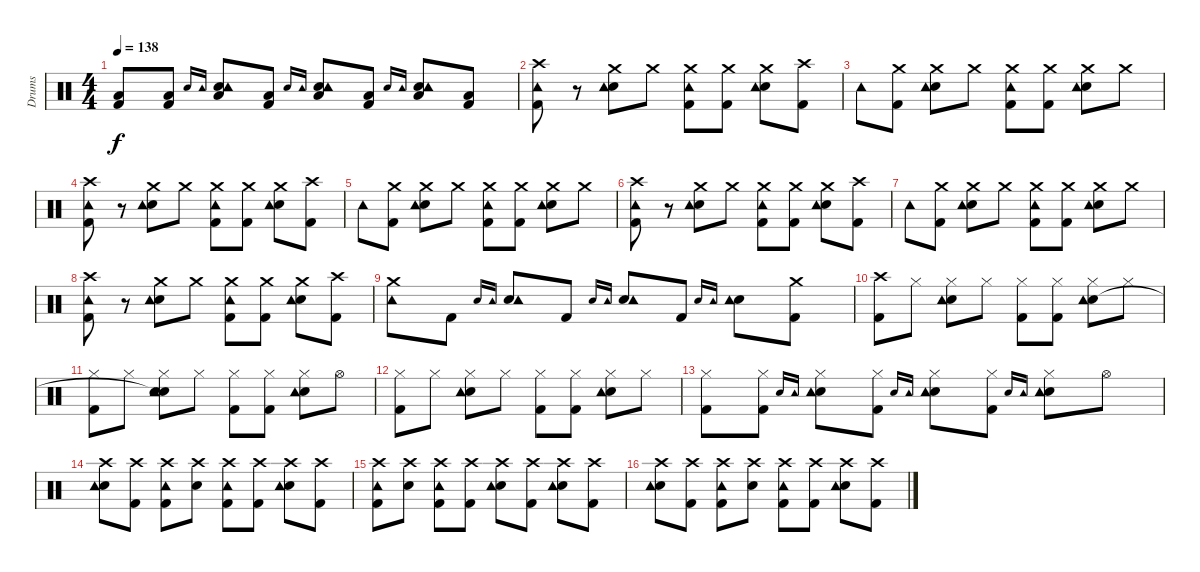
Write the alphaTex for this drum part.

\track ("Drums" "Drums") {instrument percussion}
\staff {score}
\articulation defaults
\ts (4 4)
\tempo 138
\clef neutral
\ks c
("Low Floor Tom (hit)" "Kick (hit) 2").8{dy f} ("Low Floor Tom (hit)" "Kick (hit) 2").8 "Electric Snare (hit)".16{gr onbeat} "Tambourine (hit)".16{gr onbeat} ("Low Floor Tom (hit)" "Electric Snare (hit)" "Tambourine (hit)").8 ("Low Floor Tom (hit)" "Kick (hit) 2").8 "Electric Snare (hit)".16{gr onbeat} "Tambourine (hit)".16{gr onbeat} ("Low Floor Tom (hit)" "Electric Snare (hit)" "Tambourine (hit)").8 ("Low Floor Tom (hit)" "Kick (hit) 2").8 "Electric Snare (hit)".16{gr onbeat} "Tambourine (hit)".16{gr onbeat} ("Low Floor Tom (hit)" "Electric Snare (hit)" "Tambourine (hit)").8 ("Low Floor Tom (hit)" "Kick (hit) 2").8 |
("Crash high (hit)" "Kick (hit) 2" "Tambourine (hit)").8 r.8 ("Crash medium (hit)" "Electric Snare (hit)" "Tambourine (hit)").8 "Crash medium (hit)".8 ("Crash medium (hit)" "Kick (hit) 2" "Tambourine (hit)").8 ("Crash medium (hit)" "Kick (hit) 2").8 ("Crash medium (hit)" "Electric Snare (hit)" "Tambourine (hit)").8 ("Crash high (hit)" "Kick (hit) 2").8 |
"Tambourine (hit)".8 ("Crash medium (hit)" "Kick (hit) 2").8 ("Crash medium (hit)" "Electric Snare (hit)" "Tambourine (hit)").8 "Crash medium (hit)".8 ("Crash medium (hit)" "Kick (hit) 2" "Tambourine (hit)").8 ("Crash medium (hit)" "Kick (hit) 2").8 ("Crash medium (hit)" "Electric Snare (hit)" "Tambourine (hit)").8 "Crash medium (hit)".8 |
("Crash high (hit)" "Kick (hit) 2" "Tambourine (hit)").8 r.8 ("Crash medium (hit)" "Electric Snare (hit)" "Tambourine (hit)").8 "Crash medium (hit)".8 ("Crash medium (hit)" "Kick (hit) 2" "Tambourine (hit)").8 ("Crash medium (hit)" "Kick (hit) 2").8 ("Crash medium (hit)" "Electric Snare (hit)" "Tambourine (hit)").8 ("Crash high (hit)" "Kick (hit) 2").8 |
"Tambourine (hit)".8 ("Crash medium (hit)" "Kick (hit) 2").8 ("Crash medium (hit)" "Electric Snare (hit)" "Tambourine (hit)").8 "Crash medium (hit)".8 ("Crash medium (hit)" "Kick (hit) 2" "Tambourine (hit)").8 ("Crash medium (hit)" "Kick (hit) 2").8 ("Crash medium (hit)" "Electric Snare (hit)" "Tambourine (hit)").8 "Crash medium (hit)".8 |
("Crash high (hit)" "Kick (hit) 2" "Tambourine (hit)").8 r.8 ("Crash medium (hit)" "Electric Snare (hit)" "Tambourine (hit)").8 "Crash medium (hit)".8 ("Crash medium (hit)" "Kick (hit) 2" "Tambourine (hit)").8 ("Crash medium (hit)" "Kick (hit) 2").8 ("Crash medium (hit)" "Electric Snare (hit)" "Tambourine (hit)").8 ("Crash high (hit)" "Kick (hit) 2").8 |
"Tambourine (hit)".8 ("Crash medium (hit)" "Kick (hit) 2").8 ("Crash medium (hit)" "Electric Snare (hit)" "Tambourine (hit)").8 "Crash medium (hit)".8 ("Crash medium (hit)" "Kick (hit) 2" "Tambourine (hit)").8 ("Crash medium (hit)" "Kick (hit) 2").8 ("Crash medium (hit)" "Electric Snare (hit)" "Tambourine (hit)").8 "Crash medium (hit)".8 |
("Crash high (hit)" "Kick (hit) 2" "Tambourine (hit)").8 r.8 ("Crash medium (hit)" "Electric Snare (hit)" "Tambourine (hit)").8 "Crash medium (hit)".8 ("Crash medium (hit)" "Kick (hit) 2" "Tambourine (hit)").8 ("Crash medium (hit)" "Kick (hit) 2").8 ("Crash medium (hit)" "Electric Snare (hit)" "Tambourine (hit)").8 ("Crash high (hit)" "Kick (hit) 2").8 |
("Crash medium (hit)" "Tambourine (hit)").8 "Kick (hit) 2".8 "Electric Snare (hit)".16{gr onbeat} "Tambourine (hit)".16{gr onbeat} ("Electric Snare (hit)" "Tambourine (hit)").8 "Kick (hit) 2".8 "Electric Snare (hit)".16{gr onbeat} "Tambourine (hit)".16{gr onbeat} ("Electric Snare (hit)" "Tambourine (hit)").8 "Kick (hit) 2".8 "Electric Snare (hit)".16{gr onbeat} "Tambourine (hit)".16{gr onbeat} ("Electric Snare (hit)" "Tambourine (hit)").8 ("Crash medium (hit)" "Kick (hit) 2").8 |
("Crash high (hit)" "Kick (hit) 2").8 "Hi-Hat (closed)".8 ("Hi-Hat (closed)" "Electric Snare (hit)" "Tambourine (hit)").8 "Hi-Hat (closed)".8 ("Hi-Hat (closed)" "Kick (hit) 2").8 ("Hi-Hat (closed)" "Kick (hit) 2").8 ("Hi-Hat (closed)" "Electric Snare (hit)" "Tambourine (hit)").8 "Hi-Hat (closed)".8 |
("Hi-Hat (closed)" "Kick (hit) 2").8 "Hi-Hat (closed)".8 ("Hi-Hat (closed)" "Electric Snare (hit)" "Snare (hit)"{t} "Tambourine (hit)").8 "Hi-Hat (closed)".8 ("Hi-Hat (closed)" "Kick (hit) 2").8 ("Hi-Hat (closed)" "Kick (hit) 2").8 ("Hi-Hat (closed)" "Electric Snare (hit)" "Tambourine (hit)").8 "Hi-Hat (open)".8 |
("Hi-Hat (closed)" "Kick (hit) 2").8 "Hi-Hat (closed)".8 ("Hi-Hat (closed)" "Electric Snare (hit)" "Tambourine (hit)").8 "Hi-Hat (closed)".8 ("Hi-Hat (closed)" "Kick (hit) 2").8 ("Hi-Hat (closed)" "Kick (hit) 2").8 ("Hi-Hat (closed)" "Electric Snare (hit)" "Tambourine (hit)").8 "Hi-Hat (closed)".8 |
("Hi-Hat (closed)" "Kick (hit) 2").8 ("Hi-Hat (closed)" "Kick (hit) 2").8 "Electric Snare (hit)".16{gr onbeat} "Tambourine (hit)".16{gr onbeat} ("Hi-Hat (closed)" "Electric Snare (hit)" "Tambourine (hit)").8 ("Hi-Hat (closed)" "Kick (hit) 2").8 "Electric Snare (hit)".16{gr onbeat} "Tambourine (hit)".16{gr onbeat} ("Hi-Hat (closed)" "Electric Snare (hit)" "Tambourine (hit)").8 ("Hi-Hat (closed)" "Kick (hit) 2").8 "Electric Snare (hit)".16{gr onbeat} "Tambourine (hit)".16{gr onbeat} ("Hi-Hat (closed)" "Electric Snare (hit)" "Tambourine (hit)").8 "Hi-Hat (open)".8 |
("Crash high (hit)" "Electric Snare (hit)" "Tambourine (hit)").8 ("Crash high (hit)" "Kick (hit) 2").8 ("Crash high (hit)" "Kick (hit) 2" "Tambourine (hit)").8 ("Crash high (hit)" "Electric Snare (hit)").8 ("Crash high (hit)" "Kick (hit) 2" "Tambourine (hit)").8 ("Crash high (hit)" "Kick (hit) 2").8 ("Crash high (hit)" "Electric Snare (hit)" "Tambourine (hit)").8 ("Crash high (hit)" "Kick (hit) 2").8 |
("Crash high (hit)" "Kick (hit) 2" "Tambourine (hit)").8 ("Crash high (hit)" "Electric Snare (hit)").8 ("Crash high (hit)" "Kick (hit) 2" "Tambourine (hit)").8 ("Crash high (hit)" "Kick (hit) 2").8 ("Crash high (hit)" "Electric Snare (hit)" "Tambourine (hit)").8 ("Crash high (hit)" "Kick (hit) 2").8 ("Crash high (hit)" "Electric Snare (hit)" "Tambourine (hit)").8 ("Crash high (hit)" "Kick (hit) 2").8 |
("Crash high (hit)" "Electric Snare (hit)" "Tambourine (hit)").8 ("Crash high (hit)" "Kick (hit) 2").8 ("Crash high (hit)" "Kick (hit) 2" "Tambourine (hit)").8 ("Crash high (hit)" "Electric Snare (hit)").8 ("Crash high (hit)" "Kick (hit) 2" "Tambourine (hit)").8 ("Crash high (hit)" "Kick (hit) 2").8 ("Crash high (hit)" "Electric Snare (hit)" "Tambourine (hit)").8 ("Crash high (hit)" "Kick (hit) 2").8
